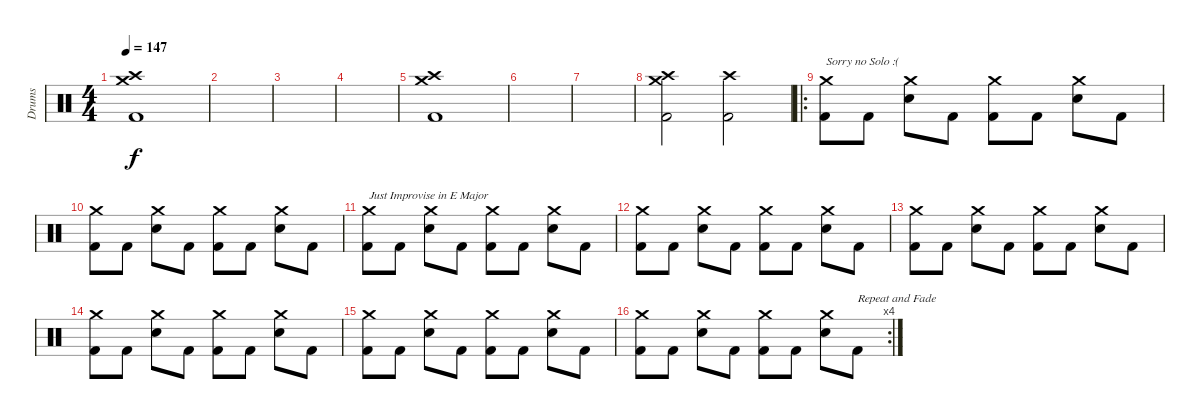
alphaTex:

\track ("Drums" "Drums") {instrument percussion}
\staff {score}
\articulation defaults
\ts (4 4)
\tempo 147
\clef neutral
\ks c
("Crash medium (hit)" "Crash high (hit)" "Kick (hit) 2").1{dy f} |
|
|
|
("Crash medium (hit)" "Crash high (hit)" "Kick (hit) 2").1 |
|
|
("Crash high (hit)" "Crash medium (hit)" "Kick (hit) 2").2 ("Crash high (hit)" "Kick (hit) 2").2 |
\ro
("Crash medium (hit)" "Kick (hit) 2").8{txt "Sorry no Solo :("} "Kick (hit) 2".8 ("Crash medium (hit)" "Electric Snare (hit)").8 "Kick (hit) 2".8 ("Crash medium (hit)" "Kick (hit) 2").8 "Kick (hit) 2".8 ("Crash medium (hit)" "Electric Snare (hit)").8 "Kick (hit) 2".8 |
("Crash medium (hit)" "Kick (hit) 2").8 "Kick (hit) 2".8 ("Crash medium (hit)" "Electric Snare (hit)").8 "Kick (hit) 2".8 ("Crash medium (hit)" "Kick (hit) 2").8 "Kick (hit) 2".8 ("Crash medium (hit)" "Electric Snare (hit)").8 "Kick (hit) 2".8 |
("Crash medium (hit)" "Kick (hit) 2").8{txt "Just Improvise in E Major"} "Kick (hit) 2".8 ("Crash medium (hit)" "Electric Snare (hit)").8 "Kick (hit) 2".8 ("Crash medium (hit)" "Kick (hit) 2").8 "Kick (hit) 2".8 ("Crash medium (hit)" "Electric Snare (hit)").8 "Kick (hit) 2".8 |
("Crash medium (hit)" "Kick (hit) 2").8 "Kick (hit) 2".8 ("Crash medium (hit)" "Electric Snare (hit)").8 "Kick (hit) 2".8 ("Crash medium (hit)" "Kick (hit) 2").8 "Kick (hit) 2".8 ("Crash medium (hit)" "Electric Snare (hit)").8 "Kick (hit) 2".8 |
("Crash medium (hit)" "Kick (hit) 2").8 "Kick (hit) 2".8 ("Crash medium (hit)" "Electric Snare (hit)").8 "Kick (hit) 2".8 ("Crash medium (hit)" "Kick (hit) 2").8 "Kick (hit) 2".8 ("Crash medium (hit)" "Electric Snare (hit)").8 "Kick (hit) 2".8 |
("Crash medium (hit)" "Kick (hit) 2").8 "Kick (hit) 2".8 ("Crash medium (hit)" "Electric Snare (hit)").8 "Kick (hit) 2".8 ("Crash medium (hit)" "Kick (hit) 2").8 "Kick (hit) 2".8 ("Crash medium (hit)" "Electric Snare (hit)").8 "Kick (hit) 2".8 |
("Crash medium (hit)" "Kick (hit) 2").8 "Kick (hit) 2".8 ("Crash medium (hit)" "Electric Snare (hit)").8 "Kick (hit) 2".8 ("Crash medium (hit)" "Kick (hit) 2").8 "Kick (hit) 2".8 ("Crash medium (hit)" "Electric Snare (hit)").8 "Kick (hit) 2".8 |
\rc 4
("Crash medium (hit)" "Kick (hit) 2").8 "Kick (hit) 2".8 ("Crash medium (hit)" "Electric Snare (hit)").8 "Kick (hit) 2".8 ("Crash medium (hit)" "Kick (hit) 2").8 "Kick (hit) 2".8 ("Crash medium (hit)" "Electric Snare (hit)").8 "Kick (hit) 2".8{txt "Repeat and Fade"}
